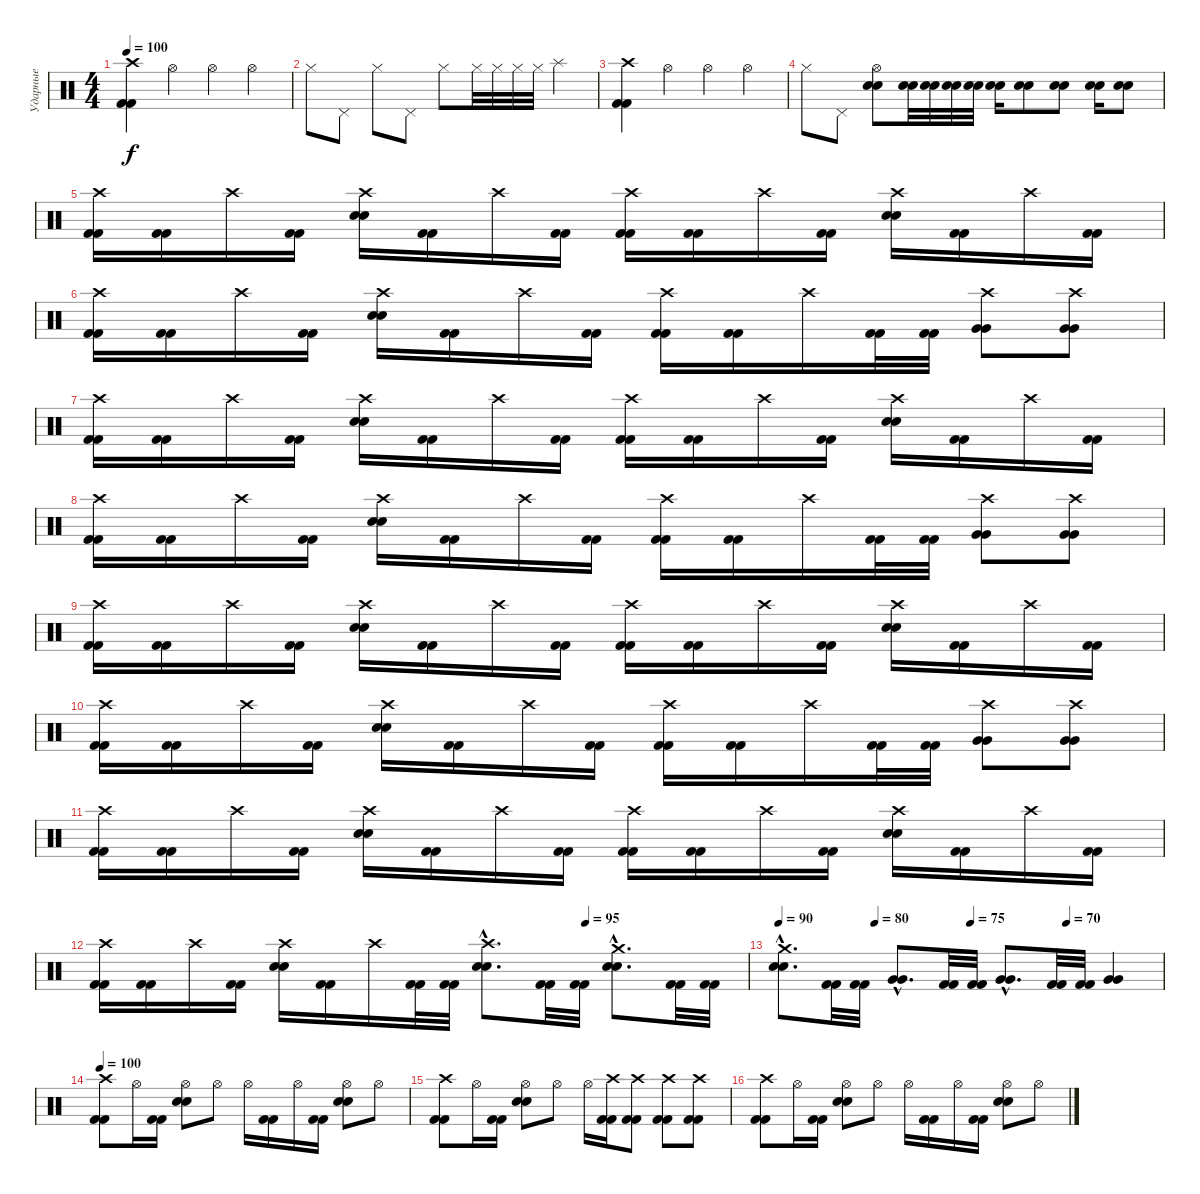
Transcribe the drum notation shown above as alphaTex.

\track ("Ударные" "Ударные") {instrument percussion}
\staff {score}
\articulation defaults
\ts (4 4)
\tempo 100
\clef neutral
\ks c
("Crash high (hit)" "Kick (hit) 2" "Kick (hit) 2").4{dy f} "Hi-Hat (open)".4 "Hi-Hat (open)".4 "Hi-Hat (open)".4 |
"Hi-Hat (closed)".8 "Pedal Hi-Hat (hit)".8 "Hi-Hat (closed)".8 "Pedal Hi-Hat (hit)".8 "Hi-Hat (closed)".8 "Hi-Hat (closed)".32 "Hi-Hat (closed)".32 "Hi-Hat (closed)".32 "Hi-Hat (closed)".32 "Splash (hit)".4 |
("Crash high (hit)" "Kick (hit) 2" "Kick (hit) 2").4 "Hi-Hat (open)".4 "Hi-Hat (open)".4 "Hi-Hat (open)".4 |
"Hi-Hat (closed)".8 "Pedal Hi-Hat (hit)".8 ("Hi-Hat (open)" "Electric Snare (hit)" "Electric Snare (hit)").8 ("Electric Snare (hit)" "Electric Snare (hit)").32 ("Electric Snare (hit)" "Electric Snare (hit)").32 ("Electric Snare (hit)" "Electric Snare (hit)").32 ("Electric Snare (hit)" "Electric Snare (hit)").32 ("Electric Snare (hit)" "Electric Snare (hit)").16 ("Electric Snare (hit)" "Electric Snare (hit)").8 ("Electric Snare (hit)" "Electric Snare (hit)").8 ("Electric Snare (hit)" "Electric Snare (hit)").16 ("Electric Snare (hit)" "Electric Snare (hit)").8 |
("Crash high (hit)" "Kick (hit) 2" "Kick (hit) 2").16 ("Kick (hit) 2" "Kick (hit) 2").16 "Crash high (hit)".16 ("Kick (hit) 2" "Kick (hit) 2").16 ("Crash high (hit)" "Electric Snare (hit)" "Electric Snare (hit)").16 ("Kick (hit) 2" "Kick (hit) 2").16 "Crash high (hit)".16 ("Kick (hit) 2" "Kick (hit) 2").16 ("Crash high (hit)" "Kick (hit) 2" "Kick (hit) 2").16 ("Kick (hit) 2" "Kick (hit) 2").16 "Crash high (hit)".16 ("Kick (hit) 2" "Kick (hit) 2").16 ("Crash high (hit)" "Electric Snare (hit)" "Electric Snare (hit)").16 ("Kick (hit) 2" "Kick (hit) 2").16 "Crash high (hit)".16 ("Kick (hit) 2" "Kick (hit) 2").16 |
("Crash high (hit)" "Kick (hit) 2" "Kick (hit) 2").16 ("Kick (hit) 2" "Kick (hit) 2").16 "Crash high (hit)".16 ("Kick (hit) 2" "Kick (hit) 2").16 ("Crash high (hit)" "Electric Snare (hit)" "Electric Snare (hit)").16 ("Kick (hit) 2" "Kick (hit) 2").16 "Crash high (hit)".16 ("Kick (hit) 2" "Kick (hit) 2").16 ("Crash high (hit)" "Kick (hit) 2" "Kick (hit) 2").16 ("Kick (hit) 2" "Kick (hit) 2").16 "Crash high (hit)".16 ("Kick (hit) 2" "Kick (hit) 2").32 ("Kick (hit) 2" "Kick (hit) 2").32 ("Crash high (hit)" "Very Low Tom (hit)" "Very Low Tom (hit)").8 ("Crash high (hit)" "Very Low Tom (hit)" "Very Low Tom (hit)").8 |
("Crash high (hit)" "Kick (hit) 2" "Kick (hit) 2").16 ("Kick (hit) 2" "Kick (hit) 2").16 "Crash high (hit)".16 ("Kick (hit) 2" "Kick (hit) 2").16 ("Crash high (hit)" "Electric Snare (hit)" "Electric Snare (hit)").16 ("Kick (hit) 2" "Kick (hit) 2").16 "Crash high (hit)".16 ("Kick (hit) 2" "Kick (hit) 2").16 ("Crash high (hit)" "Kick (hit) 2" "Kick (hit) 2").16 ("Kick (hit) 2" "Kick (hit) 2").16 "Crash high (hit)".16 ("Kick (hit) 2" "Kick (hit) 2").16 ("Crash high (hit)" "Electric Snare (hit)" "Electric Snare (hit)").16 ("Kick (hit) 2" "Kick (hit) 2").16 "Crash high (hit)".16 ("Kick (hit) 2" "Kick (hit) 2").16 |
("Crash high (hit)" "Kick (hit) 2" "Kick (hit) 2").16 ("Kick (hit) 2" "Kick (hit) 2").16 "Crash high (hit)".16 ("Kick (hit) 2" "Kick (hit) 2").16 ("Crash high (hit)" "Electric Snare (hit)" "Electric Snare (hit)").16 ("Kick (hit) 2" "Kick (hit) 2").16 "Crash high (hit)".16 ("Kick (hit) 2" "Kick (hit) 2").16 ("Crash high (hit)" "Kick (hit) 2" "Kick (hit) 2").16 ("Kick (hit) 2" "Kick (hit) 2").16 "Crash high (hit)".16 ("Kick (hit) 2" "Kick (hit) 2").32 ("Kick (hit) 2" "Kick (hit) 2").32 ("Crash high (hit)" "Very Low Tom (hit)" "Very Low Tom (hit)").8 ("Crash high (hit)" "Very Low Tom (hit)" "Very Low Tom (hit)").8 |
("Crash high (hit)" "Kick (hit) 2" "Kick (hit) 2").16 ("Kick (hit) 2" "Kick (hit) 2").16 "Crash high (hit)".16 ("Kick (hit) 2" "Kick (hit) 2").16 ("Crash high (hit)" "Electric Snare (hit)" "Electric Snare (hit)").16 ("Kick (hit) 2" "Kick (hit) 2").16 "Crash high (hit)".16 ("Kick (hit) 2" "Kick (hit) 2").16 ("Crash high (hit)" "Kick (hit) 2" "Kick (hit) 2").16 ("Kick (hit) 2" "Kick (hit) 2").16 "Crash high (hit)".16 ("Kick (hit) 2" "Kick (hit) 2").16 ("Crash high (hit)" "Electric Snare (hit)" "Electric Snare (hit)").16 ("Kick (hit) 2" "Kick (hit) 2").16 "Crash high (hit)".16 ("Kick (hit) 2" "Kick (hit) 2").16 |
("Crash high (hit)" "Kick (hit) 2" "Kick (hit) 2").16 ("Kick (hit) 2" "Kick (hit) 2").16 "Crash high (hit)".16 ("Kick (hit) 2" "Kick (hit) 2").16 ("Crash high (hit)" "Electric Snare (hit)" "Electric Snare (hit)").16 ("Kick (hit) 2" "Kick (hit) 2").16 "Crash high (hit)".16 ("Kick (hit) 2" "Kick (hit) 2").16 ("Crash high (hit)" "Kick (hit) 2" "Kick (hit) 2").16 ("Kick (hit) 2" "Kick (hit) 2").16 "Crash high (hit)".16 ("Kick (hit) 2" "Kick (hit) 2").32 ("Kick (hit) 2" "Kick (hit) 2").32 ("Crash high (hit)" "Very Low Tom (hit)" "Very Low Tom (hit)").8 ("Crash high (hit)" "Very Low Tom (hit)" "Very Low Tom (hit)").8 |
("Crash high (hit)" "Kick (hit) 2" "Kick (hit) 2").16 ("Kick (hit) 2" "Kick (hit) 2").16 "Crash high (hit)".16 ("Kick (hit) 2" "Kick (hit) 2").16 ("Crash high (hit)" "Electric Snare (hit)" "Electric Snare (hit)").16 ("Kick (hit) 2" "Kick (hit) 2").16 "Crash high (hit)".16 ("Kick (hit) 2" "Kick (hit) 2").16 ("Crash high (hit)" "Kick (hit) 2" "Kick (hit) 2").16 ("Kick (hit) 2" "Kick (hit) 2").16 "Crash high (hit)".16 ("Kick (hit) 2" "Kick (hit) 2").16 ("Crash high (hit)" "Electric Snare (hit)" "Electric Snare (hit)").16 ("Kick (hit) 2" "Kick (hit) 2").16 "Crash high (hit)".16 ("Kick (hit) 2" "Kick (hit) 2").16 |
\tempo (95 0.75)
("Crash high (hit)" "Kick (hit) 2" "Kick (hit) 2").16 ("Kick (hit) 2" "Kick (hit) 2").16 "Crash high (hit)".16 ("Kick (hit) 2" "Kick (hit) 2").16 ("Crash high (hit)" "Electric Snare (hit)" "Electric Snare (hit)").16 ("Kick (hit) 2" "Kick (hit) 2").16 "Crash high (hit)".16 ("Kick (hit) 2" "Kick (hit) 2").32 ("Kick (hit) 2" "Kick (hit) 2").32 ("Crash high (hit)"{hac} "Electric Snare (hit)"{hac} "Electric Snare (hit)"{hac}).8{d} ("Kick (hit) 2" "Kick (hit) 2").32 ("Kick (hit) 2" "Kick (hit) 2").32 ("Crash medium (hit)"{hac} "Electric Snare (hit)"{hac} "Electric Snare (hit)"{hac}).8{d} ("Kick (hit) 2" "Kick (hit) 2").32 ("Kick (hit) 2" "Kick (hit) 2").32 |
\tempo 90
\tempo (80 0.25)
\tempo (75 0.5)
\tempo (70 0.75)
("Crash medium (hit)"{hac} "Electric Snare (hit)"{hac} "Electric Snare (hit)"{hac}).8{d} ("Kick (hit) 2" "Kick (hit) 2").32 ("Kick (hit) 2" "Kick (hit) 2").32 ("Very Low Tom (hit)"{hac} "Very Low Tom (hit)"{hac}).8{d} ("Kick (hit) 2" "Kick (hit) 2").32 ("Kick (hit) 2" "Kick (hit) 2").32 ("Very Low Tom (hit)"{hac} "Very Low Tom (hit)"{hac}).8{d} ("Kick (hit) 2" "Kick (hit) 2").32 ("Kick (hit) 2" "Kick (hit) 2").32 ("Very Low Tom (hit)" "Very Low Tom (hit)").4 |
\tempo 100
("Crash high (hit)" "Kick (hit) 2" "Kick (hit) 2").8 "Hi-Hat (open)".16 ("Kick (hit) 2" "Kick (hit) 2").16 ("Hi-Hat (open)" "Electric Snare (hit)" "Electric Snare (hit)").8 "Hi-Hat (open)".8 "Hi-Hat (open)".16 ("Kick (hit) 2" "Kick (hit) 2").16 "Hi-Hat (open)".16 ("Kick (hit) 2" "Kick (hit) 2").16 ("Hi-Hat (open)" "Electric Snare (hit)" "Electric Snare (hit)").8 "Hi-Hat (open)".8 |
("Crash high (hit)" "Kick (hit) 2" "Kick (hit) 2").8 "Hi-Hat (open)".16 ("Kick (hit) 2" "Kick (hit) 2").16 ("Hi-Hat (open)" "Electric Snare (hit)" "Electric Snare (hit)").8 "Hi-Hat (open)".8 "Hi-Hat (open)".16 ("Crash high (hit)" "Kick (hit) 2" "Kick (hit) 2").16 ("Crash high (hit)" "Kick (hit) 2" "Kick (hit) 2").8 ("Crash high (hit)" "Kick (hit) 2" "Kick (hit) 2").8 ("Crash high (hit)" "Kick (hit) 2" "Kick (hit) 2").8 |
("Crash high (hit)" "Kick (hit) 2" "Kick (hit) 2").8 "Hi-Hat (open)".16 ("Kick (hit) 2" "Kick (hit) 2").16 ("Hi-Hat (open)" "Electric Snare (hit)" "Electric Snare (hit)").8 "Hi-Hat (open)".8 "Hi-Hat (open)".16 ("Kick (hit) 2" "Kick (hit) 2").16 "Hi-Hat (open)".16 ("Kick (hit) 2" "Kick (hit) 2").16 ("Hi-Hat (open)" "Electric Snare (hit)" "Electric Snare (hit)").8 "Hi-Hat (open)".8
